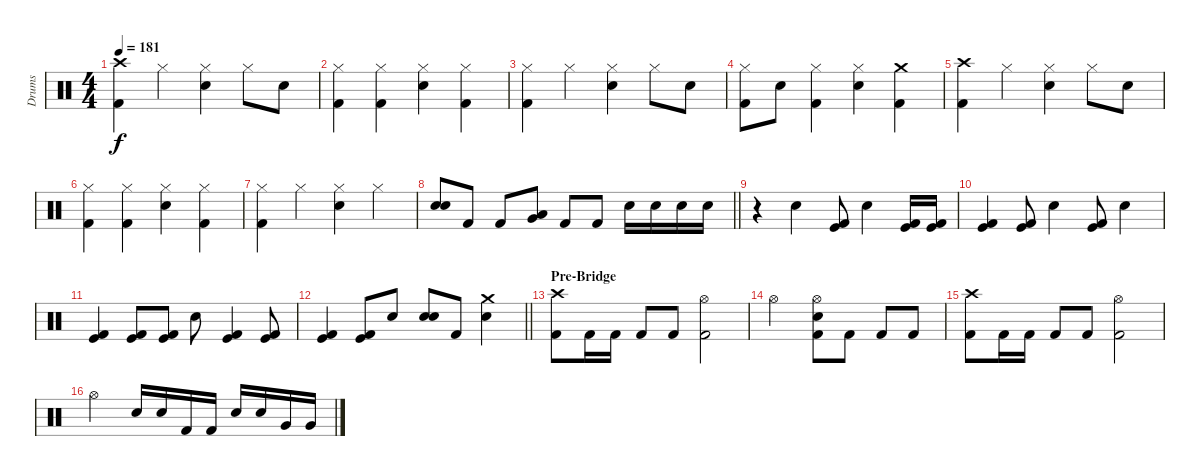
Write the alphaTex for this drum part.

\track ("Drums" "Drums") {instrument percussion}
\staff {score}
\articulation defaults
\ts (4 4)
\tempo 181
\clef neutral
\ks c
("Crash high (hit)" "Kick (hit) 2").4{dy f} "Hi-Hat (closed)".4 ("Hi-Hat (closed)" "Snare (hit) 2").4 "Hi-Hat (closed)".8 "Snare (hit) 2".8 |
("Hi-Hat (closed)" "Kick (hit) 2").4 ("Hi-Hat (closed)" "Kick (hit) 2").4 ("Hi-Hat (closed)" "Snare (hit) 2").4 ("Hi-Hat (closed)" "Kick (hit) 2").4 |
("Hi-Hat (closed)" "Kick (hit) 2").4 "Hi-Hat (closed)".4 ("Hi-Hat (closed)" "Snare (hit) 2").4 "Hi-Hat (closed)".8 "Snare (hit) 2".8 |
("Hi-Hat (closed)" "Kick (hit) 2").8 "Snare (hit) 2".8 ("Hi-Hat (closed)" "Kick (hit) 2").4 ("Hi-Hat (closed)" "Snare (hit) 2").4 ("Crash medium (hit)" "Kick (hit) 2").4 |
("Crash high (hit)" "Kick (hit) 2").4 "Hi-Hat (closed)".4 ("Hi-Hat (closed)" "Snare (hit) 2").4 "Hi-Hat (closed)".8 "Snare (hit) 2".8 |
("Hi-Hat (closed)" "Kick (hit) 2").4 ("Hi-Hat (closed)" "Kick (hit) 2").4 ("Hi-Hat (closed)" "Snare (hit) 2").4 ("Hi-Hat (closed)" "Kick (hit) 2").4 |
("Hi-Hat (closed)" "Kick (hit) 2").4 "Hi-Hat (closed)".4 ("Hi-Hat (closed)" "Snare (hit) 2").4 "Hi-Hat (closed)".4 |
\barLineRight lightlight
("Snare (hit) 2" "Snare (hit) 2").8 "Kick (hit) 2".8 "Kick (hit) 2".8 ("Very Low Tom (hit)" "Low Tom (hit)").8 "Kick (hit) 2".8 "Kick (hit) 2".8 "Snare (hit) 2".16 "Snare (hit) 2".16 "Snare (hit) 2".16 "Snare (hit) 2".16 |
r.4 "Snare (hit) 2".4 ("Kick (hit)" "Kick (hit) 2").8 "Snare (hit) 2".4 ("Kick (hit)" "Kick (hit) 2").16 ("Kick (hit)" "Kick (hit) 2").16 |
("Kick (hit)" "Kick (hit) 2").4 ("Kick (hit)" "Kick (hit) 2").8 "Snare (hit) 2".4 ("Kick (hit)" "Kick (hit) 2").8 "Snare (hit) 2".4 |
("Kick (hit)" "Kick (hit) 2").4 ("Kick (hit)" "Kick (hit) 2").8 ("Kick (hit)" "Kick (hit) 2").8 "Snare (hit) 2".8 ("Kick (hit)" "Kick (hit) 2").4 ("Kick (hit)" "Kick (hit) 2").8 |
\barLineRight lightlight
("Kick (hit)" "Kick (hit) 2").4 ("Kick (hit)" "Kick (hit) 2").8 "Snare (hit) 2".8 ("Snare (hit) 2" "Snare (hit) 2").8 "Kick (hit) 2".8 ("Crash medium (hit)" "Snare (hit) 2").4 |
\section ("" "Pre-Bridge")
("Crash high (hit)" "Kick (hit) 2").8 "Kick (hit) 2".16 "Kick (hit) 2".16 "Kick (hit) 2".8 "Kick (hit) 2".8 ("Hi-Hat (open)" "Kick (hit) 2").2 |
"Hi-Hat (open)".2 ("Hi-Hat (open)" "Snare (hit) 2" "Kick (hit) 2").8 "Kick (hit) 2".8 "Kick (hit) 2".8 "Kick (hit) 2".8 |
("Crash high (hit)" "Kick (hit) 2").8 "Kick (hit) 2".16 "Kick (hit) 2".16 "Kick (hit) 2".8 "Kick (hit) 2".8 ("Hi-Hat (open)" "Kick (hit) 2").2 |
"Hi-Hat (open)".2 "Snare (hit) 2".16 "Snare (hit) 2".16 "Kick (hit) 2".16 "Kick (hit) 2".16 "Snare (hit) 2".16 "Snare (hit) 2".16 "Very Low Tom (hit)".16 "Very Low Tom (hit)".16
